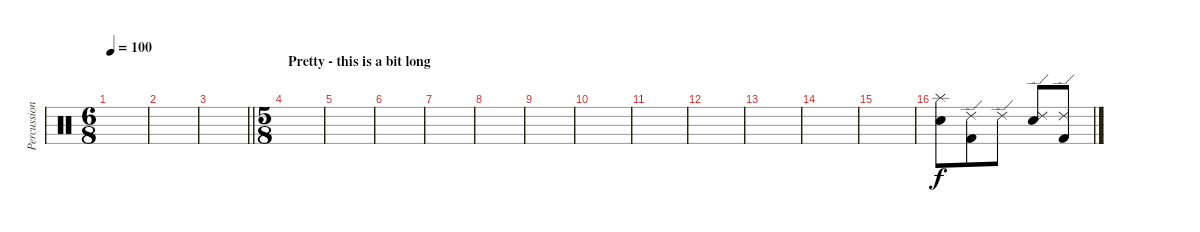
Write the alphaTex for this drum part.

\track ("Percussion" "Percussion") {instrument percussion}
\staff {score}
\articulation defaults
\ts (6 8)
\tempo 100
\clef neutral
\ks c
|
|
\barLineRight lightlight
|
\ts (5 8)
\section ("" "Pretty - this is a bit long")
|
|
|
|
|
|
|
|
|
|
|
|
("Splash (hit)" "Electric Snare (hit)").8 ("Ride (edge) 2" "Kick (hit) 2").8 "Ride (edge) 2".8 ("Ride (edge) 2" "Electric Snare (hit)").8 ("Ride (edge) 2" "Kick (hit) 2").8
